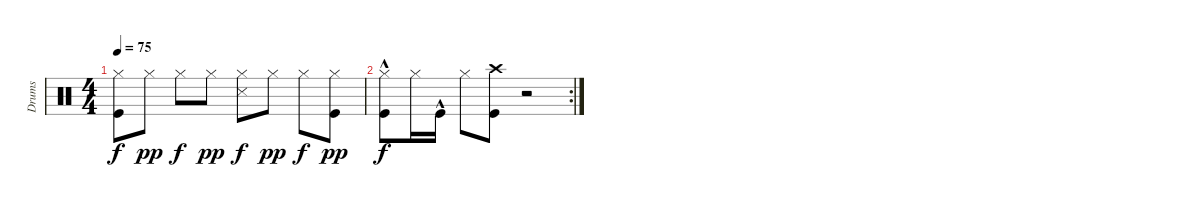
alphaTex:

\track ("Drums" "Drums") {instrument percussion}
\staff {score}
\articulation defaults
\ts (4 4)
\tempo 75
\clef neutral
\ks c
("Kick (hit)" "Hi-Hat (closed)").8{dy f} "Hi-Hat (closed)".8{dy pp} "Hi-Hat (closed)".8{dy f} "Hi-Hat (closed)".8{dy pp} ("Snare (side stick) 3" "Hi-Hat (closed)").8{dy f} "Hi-Hat (closed)".8{dy pp} "Hi-Hat (closed)".8{dy f} ("Kick (hit)" "Hi-Hat (closed)").8{dy pp} |
\rc 2
("Kick (hit)"{hac} "Hi-Hat (closed)").8{dy f} "Hi-Hat (closed)".16 "Kick (hit)"{hac}.16 "Hi-Hat (closed)".8 ("Kick (hit)" "Crash high (hit)").8 r.2
